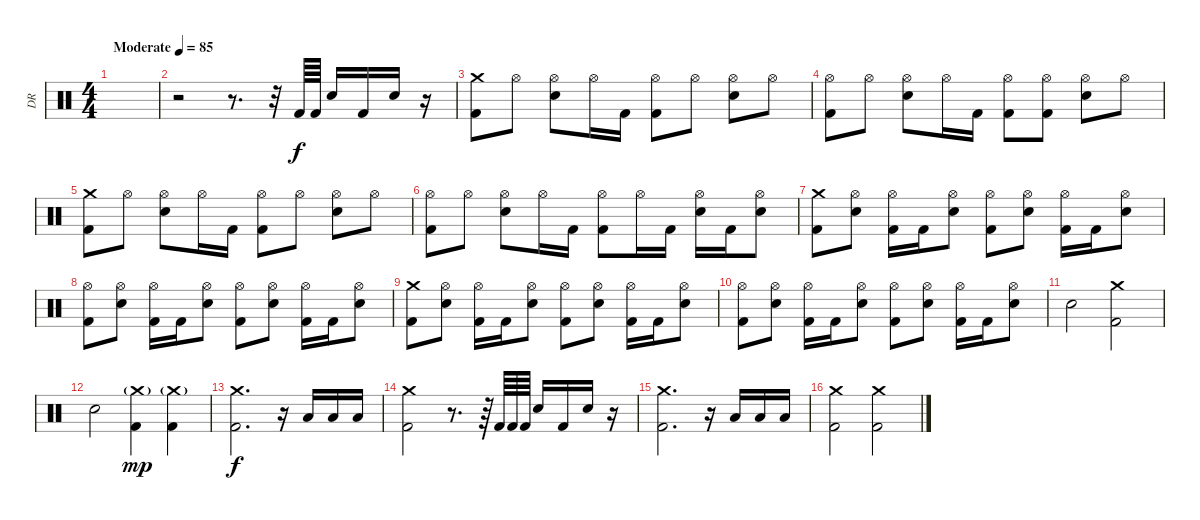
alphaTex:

\track ("DR" "DR") {instrument percussion}
\staff {score}
\articulation defaults
\ts (4 4)
\tempo (85 "Moderate")
\clef neutral
\ks c
|
r.2 r.8{d} r.32 "Kick (hit) 2".64 "Kick (hit) 2".64 "Snare (hit) 2".16 "Kick (hit) 2".16 "Snare (hit) 2".16 r.16 |
("Crash medium (hit)" "Kick (hit) 2").8 "Hi-Hat (open)".8 ("Hi-Hat (open)" "Snare (hit) 2").8 "Hi-Hat (open)".16 "Kick (hit) 2".16 ("Hi-Hat (open)" "Kick (hit) 2").8 "Hi-Hat (open)".8 ("Hi-Hat (open)" "Snare (hit) 2").8 "Hi-Hat (open)".8 |
("Hi-Hat (open)" "Kick (hit) 2").8 "Hi-Hat (open)".8 ("Hi-Hat (open)" "Snare (hit) 2").8 "Hi-Hat (open)".16 "Kick (hit) 2".16 ("Hi-Hat (open)" "Kick (hit) 2").8 ("Hi-Hat (open)" "Kick (hit) 2").8 ("Hi-Hat (open)" "Snare (hit) 2").8 "Hi-Hat (open)".8 |
("Crash medium (hit)" "Kick (hit) 2").8 "Hi-Hat (open)".8 ("Hi-Hat (open)" "Snare (hit) 2").8 "Hi-Hat (open)".16 "Kick (hit) 2".16 ("Hi-Hat (open)" "Kick (hit) 2").8 "Hi-Hat (open)".8 ("Hi-Hat (open)" "Snare (hit) 2").8 "Hi-Hat (open)".8 |
("Hi-Hat (open)" "Kick (hit) 2").8 "Hi-Hat (open)".8 ("Hi-Hat (open)" "Snare (hit) 2").8 "Hi-Hat (open)".16 "Kick (hit) 2".16 ("Hi-Hat (open)" "Kick (hit) 2").8 "Hi-Hat (open)".16 "Kick (hit) 2".16 ("Hi-Hat (open)" "Snare (hit) 2").16 "Kick (hit) 2".16 ("Hi-Hat (open)" "Snare (hit) 2").8 |
("Crash medium (hit)" "Kick (hit) 2").8 ("Hi-Hat (open)" "Snare (hit) 2").8 ("Hi-Hat (open)" "Kick (hit) 2").16 "Kick (hit) 2".16 ("Hi-Hat (open)" "Snare (hit) 2").8 ("Hi-Hat (open)" "Kick (hit) 2").8 ("Hi-Hat (open)" "Snare (hit) 2").8 ("Hi-Hat (open)" "Kick (hit) 2").16 "Kick (hit) 2".16 ("Hi-Hat (open)" "Snare (hit) 2").8 |
("Hi-Hat (open)" "Kick (hit) 2").8 ("Hi-Hat (open)" "Snare (hit) 2").8 ("Hi-Hat (open)" "Kick (hit) 2").16 "Kick (hit) 2".16 ("Hi-Hat (open)" "Snare (hit) 2").8 ("Hi-Hat (open)" "Kick (hit) 2").8 ("Hi-Hat (open)" "Snare (hit) 2").8 ("Hi-Hat (open)" "Kick (hit) 2").16 "Kick (hit) 2".16 ("Hi-Hat (open)" "Snare (hit) 2").8 |
("Crash medium (hit)" "Kick (hit) 2").8 ("Hi-Hat (open)" "Snare (hit) 2").8 ("Hi-Hat (open)" "Kick (hit) 2").16 "Kick (hit) 2".16 ("Hi-Hat (open)" "Snare (hit) 2").8 ("Hi-Hat (open)" "Kick (hit) 2").8 ("Hi-Hat (open)" "Snare (hit) 2").8 ("Hi-Hat (open)" "Kick (hit) 2").16 "Kick (hit) 2".16 ("Hi-Hat (open)" "Snare (hit) 2").8 |
("Hi-Hat (open)" "Kick (hit) 2").8 ("Hi-Hat (open)" "Snare (hit) 2").8 ("Hi-Hat (open)" "Kick (hit) 2").16 "Kick (hit) 2".16 ("Hi-Hat (open)" "Snare (hit) 2").8 ("Hi-Hat (open)" "Kick (hit) 2").8 ("Hi-Hat (open)" "Snare (hit) 2").8 ("Hi-Hat (open)" "Kick (hit) 2").16 "Kick (hit) 2".16 ("Hi-Hat (open)" "Snare (hit) 2").8 |
"Snare (hit) 2".2 ("Crash medium (hit)" "Kick (hit) 2").2 |
"Snare (hit) 2".2 ("Crash medium (hit)"{g} "Kick (hit) 2").4{dy mp} ("Crash medium (hit)"{g} "Kick (hit) 2").4 |
("Crash medium (hit)" "Kick (hit) 2").2{d dy f} r.16 "Low Tom (hit)".16 "Low Tom (hit)".16 "Low Tom (hit)".16 |
("Crash medium (hit)" "Kick (hit) 2").2 r.8{d} r.64 "Kick (hit) 2".64 "Kick (hit) 2".64 "Kick (hit) 2".64 "Snare (hit) 2".16 "Kick (hit) 2".16 "Snare (hit) 2".16 r.16 |
("Crash medium (hit)" "Kick (hit) 2").2{d} r.16 "Low Tom (hit)".16 "Low Tom (hit)".16 "Low Tom (hit)".16 |
("Crash medium (hit)" "Kick (hit) 2").2 ("Crash medium (hit)" "Kick (hit) 2").2
